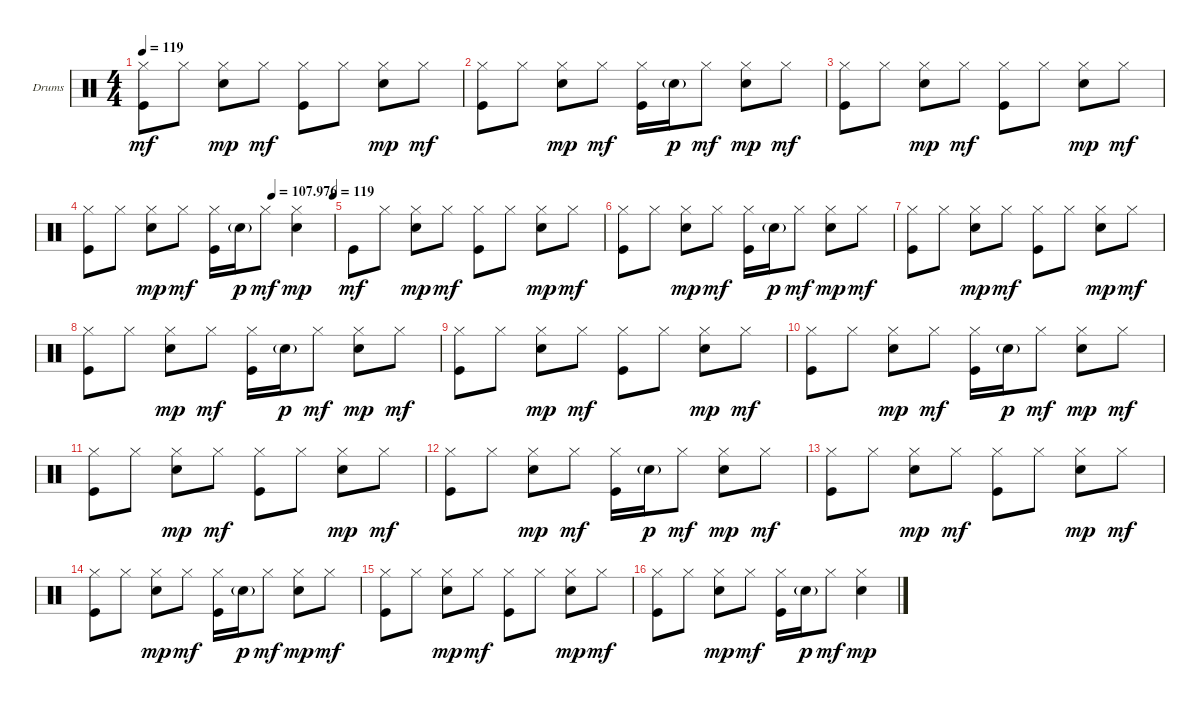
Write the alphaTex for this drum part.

\defaultSystemsLayout 4
\bracketExtendMode groupsimilarinstruments
\firstSystemTrackNameOrientation horizontal
\otherSystemsTrackNameOrientation horizontal
\track ("Drumkit" "Drums") {instrument percussion}
\staff {score}
\articulation defaults
\ts (4 4)
\tempo 119
\clef neutral
\ks c
("Kick (hit)" "Hi-Hat (closed)").8{dy mf} "Hi-Hat (closed)".8 ("Hi-Hat (closed)" "Snare (hit) 2").8{dy mp} "Hi-Hat (closed)".8{dy mf} ("Hi-Hat (closed)" "Kick (hit)").8 "Hi-Hat (closed)".8 ("Hi-Hat (closed)" "Snare (hit) 2").8{dy mp} "Hi-Hat (closed)".8{dy mf} |
("Kick (hit)" "Hi-Hat (closed)").8 "Hi-Hat (closed)".8 ("Hi-Hat (closed)" "Snare (hit) 2").8{dy mp} "Hi-Hat (closed)".8{dy mf} ("Hi-Hat (closed)" "Kick (hit)").16 "Snare (hit) 2"{g}.16{dy p} "Hi-Hat (closed)".8{dy mf} ("Hi-Hat (closed)" "Snare (hit) 2").8{dy mp} "Hi-Hat (closed)".8{dy mf} |
("Kick (hit)" "Hi-Hat (closed)").8 "Hi-Hat (closed)".8 ("Hi-Hat (closed)" "Snare (hit) 2").8{dy mp} "Hi-Hat (closed)".8{dy mf} ("Hi-Hat (closed)" "Kick (hit)").8 "Hi-Hat (closed)".8 ("Hi-Hat (closed)" "Snare (hit) 2").8{dy mp} "Hi-Hat (closed)".8{dy mf} |
\tempo (107.976 0.75)
\tempo (119 1)
("Kick (hit)" "Hi-Hat (closed)").8 "Hi-Hat (closed)".8 ("Hi-Hat (closed)" "Snare (hit) 2").8{dy mp} "Hi-Hat (closed)".8{dy mf} ("Hi-Hat (closed)" "Kick (hit)").16 "Snare (hit) 2"{g}.16{dy p} "Hi-Hat (closed)".8{dy mf} ("Hi-Hat (closed)" "Snare (hit) 2").4{dy mp} |
"Kick (hit)".8{dy mf} "Hi-Hat (closed)".8 ("Hi-Hat (closed)" "Snare (hit) 2").8{dy mp} "Hi-Hat (closed)".8{dy mf} ("Hi-Hat (closed)" "Kick (hit)").8 "Hi-Hat (closed)".8 ("Hi-Hat (closed)" "Snare (hit) 2").8{dy mp} "Hi-Hat (closed)".8{dy mf} |
("Kick (hit)" "Hi-Hat (closed)").8 "Hi-Hat (closed)".8 ("Hi-Hat (closed)" "Snare (hit) 2").8{dy mp} "Hi-Hat (closed)".8{dy mf} ("Hi-Hat (closed)" "Kick (hit)").16 "Snare (hit) 2"{g}.16{dy p} "Hi-Hat (closed)".8{dy mf} ("Hi-Hat (closed)" "Snare (hit) 2").8{dy mp} "Hi-Hat (closed)".8{dy mf} |
("Kick (hit)" "Hi-Hat (closed)").8 "Hi-Hat (closed)".8 ("Hi-Hat (closed)" "Snare (hit) 2").8{dy mp} "Hi-Hat (closed)".8{dy mf} ("Hi-Hat (closed)" "Kick (hit)").8 "Hi-Hat (closed)".8 ("Hi-Hat (closed)" "Snare (hit) 2").8{dy mp} "Hi-Hat (closed)".8{dy mf} |
("Kick (hit)" "Hi-Hat (closed)").8 "Hi-Hat (closed)".8 ("Hi-Hat (closed)" "Snare (hit) 2").8{dy mp} "Hi-Hat (closed)".8{dy mf} ("Hi-Hat (closed)" "Kick (hit)").16 "Snare (hit) 2"{g}.16{dy p} "Hi-Hat (closed)".8{dy mf} ("Hi-Hat (closed)" "Snare (hit) 2").8{dy mp} "Hi-Hat (closed)".8{dy mf} |
("Kick (hit)" "Hi-Hat (closed)").8 "Hi-Hat (closed)".8 ("Hi-Hat (closed)" "Snare (hit) 2").8{dy mp} "Hi-Hat (closed)".8{dy mf} ("Hi-Hat (closed)" "Kick (hit)").8 "Hi-Hat (closed)".8 ("Hi-Hat (closed)" "Snare (hit) 2").8{dy mp} "Hi-Hat (closed)".8{dy mf} |
("Kick (hit)" "Hi-Hat (closed)").8 "Hi-Hat (closed)".8 ("Hi-Hat (closed)" "Snare (hit) 2").8{dy mp} "Hi-Hat (closed)".8{dy mf} ("Hi-Hat (closed)" "Kick (hit)").16 "Snare (hit) 2"{g}.16{dy p} "Hi-Hat (closed)".8{dy mf} ("Hi-Hat (closed)" "Snare (hit) 2").8{dy mp} "Hi-Hat (closed)".8{dy mf} |
("Kick (hit)" "Hi-Hat (closed)").8 "Hi-Hat (closed)".8 ("Hi-Hat (closed)" "Snare (hit) 2").8{dy mp} "Hi-Hat (closed)".8{dy mf} ("Hi-Hat (closed)" "Kick (hit)").8 "Hi-Hat (closed)".8 ("Hi-Hat (closed)" "Snare (hit) 2").8{dy mp} "Hi-Hat (closed)".8{dy mf} |
("Kick (hit)" "Hi-Hat (closed)").8 "Hi-Hat (closed)".8 ("Hi-Hat (closed)" "Snare (hit) 2").8{dy mp} "Hi-Hat (closed)".8{dy mf} ("Hi-Hat (closed)" "Kick (hit)").16 "Snare (hit) 2"{g}.16{dy p} "Hi-Hat (closed)".8{dy mf} ("Hi-Hat (closed)" "Snare (hit) 2").8{dy mp} "Hi-Hat (closed)".8{dy mf} |
("Kick (hit)" "Hi-Hat (closed)").8 "Hi-Hat (closed)".8 ("Hi-Hat (closed)" "Snare (hit) 2").8{dy mp} "Hi-Hat (closed)".8{dy mf} ("Hi-Hat (closed)" "Kick (hit)").8 "Hi-Hat (closed)".8 ("Hi-Hat (closed)" "Snare (hit) 2").8{dy mp} "Hi-Hat (closed)".8{dy mf} |
("Kick (hit)" "Hi-Hat (closed)").8 "Hi-Hat (closed)".8 ("Hi-Hat (closed)" "Snare (hit) 2").8{dy mp} "Hi-Hat (closed)".8{dy mf} ("Hi-Hat (closed)" "Kick (hit)").16 "Snare (hit) 2"{g}.16{dy p} "Hi-Hat (closed)".8{dy mf} ("Hi-Hat (closed)" "Snare (hit) 2").8{dy mp} "Hi-Hat (closed)".8{dy mf} |
("Kick (hit)" "Hi-Hat (closed)").8 "Hi-Hat (closed)".8 ("Hi-Hat (closed)" "Snare (hit) 2").8{dy mp} "Hi-Hat (closed)".8{dy mf} ("Hi-Hat (closed)" "Kick (hit)").8 "Hi-Hat (closed)".8 ("Hi-Hat (closed)" "Snare (hit) 2").8{dy mp} "Hi-Hat (closed)".8{dy mf} |
("Kick (hit)" "Hi-Hat (closed)").8 "Hi-Hat (closed)".8 ("Hi-Hat (closed)" "Snare (hit) 2").8{dy mp} "Hi-Hat (closed)".8{dy mf} ("Hi-Hat (closed)" "Kick (hit)").16 "Snare (hit) 2"{g}.16{dy p} "Hi-Hat (closed)".8{dy mf} ("Hi-Hat (closed)" "Snare (hit) 2").4{dy mp}
